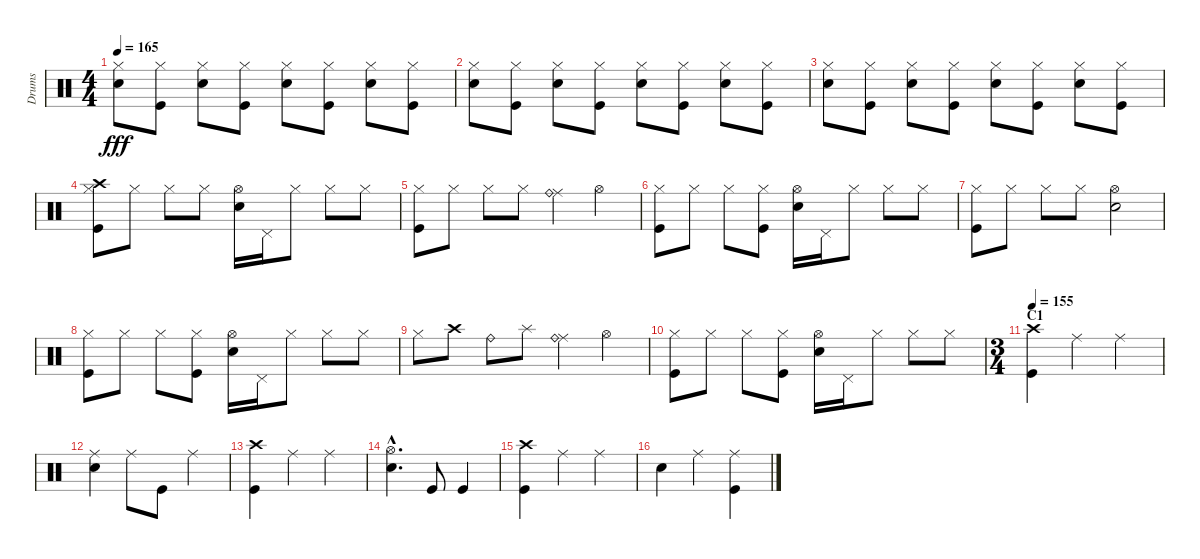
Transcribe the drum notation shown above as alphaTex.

\track ("Drums" "Drums") {instrument percussion}
\staff {score}
\articulation defaults
\ts (4 4)
\tempo 165
\clef neutral
\ks c
("Hi-Hat (closed)" "Snare (hit) 2").8{dy fff} ("Hi-Hat (closed)" "Kick (hit)").8 ("Hi-Hat (closed)" "Snare (hit) 2").8 ("Hi-Hat (closed)" "Kick (hit)").8 ("Hi-Hat (closed)" "Snare (hit) 2").8 ("Hi-Hat (closed)" "Kick (hit)").8 ("Hi-Hat (closed)" "Snare (hit) 2").8 ("Hi-Hat (closed)" "Kick (hit)").8 |
("Hi-Hat (closed)" "Snare (hit) 2").8 ("Hi-Hat (closed)" "Kick (hit)").8 ("Hi-Hat (closed)" "Snare (hit) 2").8 ("Hi-Hat (closed)" "Kick (hit)").8 ("Hi-Hat (closed)" "Snare (hit) 2").8 ("Hi-Hat (closed)" "Kick (hit)").8 ("Hi-Hat (closed)" "Snare (hit) 2").8 ("Hi-Hat (closed)" "Kick (hit)").8 |
("Hi-Hat (closed)" "Snare (hit) 2").8 ("Hi-Hat (closed)" "Kick (hit)").8 ("Hi-Hat (closed)" "Snare (hit) 2").8 ("Hi-Hat (closed)" "Kick (hit)").8 ("Hi-Hat (closed)" "Snare (hit) 2").8 ("Hi-Hat (closed)" "Kick (hit)").8 ("Hi-Hat (closed)" "Snare (hit) 2").8 ("Hi-Hat (closed)" "Kick (hit)").8 |
("Hi-Hat (closed)" "Crash high (hit)" "Kick (hit)").8 "Hi-Hat (closed)".8 "Hi-Hat (closed)".8 "Hi-Hat (closed)".8 ("Hi-Hat (open)" "Snare (hit) 2").16 "Pedal Hi-Hat (hit)".16 "Hi-Hat (closed)".8 "Hi-Hat (closed)".8 "Hi-Hat (closed)".8 |
("Hi-Hat (closed)" "Kick (hit)").8 "Hi-Hat (closed)".8 "Hi-Hat (closed)".8 "Hi-Hat (closed)".8 ("Ride (middle)" "Ride (bell)").4 "Hi-Hat (open)".4 |
("Hi-Hat (closed)" "Kick (hit)").8 "Hi-Hat (closed)".8 "Hi-Hat (closed)".8 ("Hi-Hat (closed)" "Kick (hit)").8 ("Hi-Hat (open)" "Snare (hit) 2").16 "Pedal Hi-Hat (hit)".16 "Hi-Hat (closed)".8 "Hi-Hat (closed)".8 "Hi-Hat (closed)".8 |
("Hi-Hat (closed)" "Kick (hit)").8 "Hi-Hat (closed)".8 "Hi-Hat (closed)".8 "Hi-Hat (closed)".8 ("Hi-Hat (open)" "Snare (hit) 2").2 |
("Hi-Hat (closed)" "Kick (hit)").8 "Hi-Hat (closed)".8 "Hi-Hat (closed)".8 ("Hi-Hat (closed)" "Kick (hit)").8 ("Hi-Hat (open)" "Snare (hit) 2").16 "Pedal Hi-Hat (hit)".16 "Hi-Hat (closed)".8 "Hi-Hat (closed)".8 "Hi-Hat (closed)".8 |
"Hi-Hat (closed)".8 "Crash high (hit)".8 "Ride (bell)".8 "Splash (hit)".8 ("Ride (middle)" "Ride (bell)").4 "Hi-Hat (open)".4 |
("Hi-Hat (closed)" "Kick (hit)").8 "Hi-Hat (closed)".8 "Hi-Hat (closed)".8 ("Hi-Hat (closed)" "Kick (hit)").8 ("Hi-Hat (open)" "Snare (hit) 2").16 "Pedal Hi-Hat (hit)".16 "Hi-Hat (closed)".8 "Hi-Hat (closed)".8 "Hi-Hat (closed)".8 |
\ts (3 4)
\section ("" "C1")
\tempo 155
("Crash high (hit)" "Kick (hit)").4 "Ride (middle)".4 "Ride (middle)".4 |
("Ride (middle)" "Snare (hit) 2").4 "Ride (middle)".8 "Kick (hit)".8 "Ride (middle)".4 |
("Crash high (hit)" "Kick (hit)").4 "Ride (middle)".4 "Ride (middle)".4 |
("Hi-Hat (open)"{hac} "Snare (hit) 2"{hac}).4{d} "Kick (hit)".8 "Kick (hit)".4 |
("Crash high (hit)" "Kick (hit)").4 "Ride (middle)".4 "Ride (middle)".4 |
"Snare (hit) 2".4 "Ride (middle)".4 ("Ride (middle)" "Kick (hit)").4
